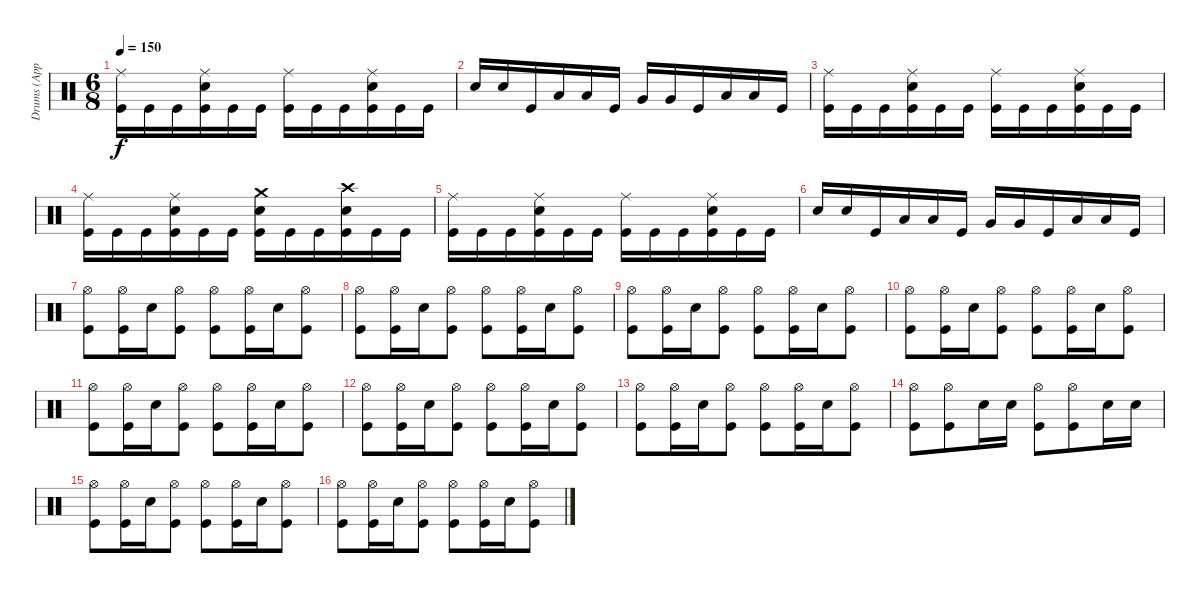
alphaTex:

\track ("Drums (Appelhans/Durst)" "Drums (App") {instrument percussion}
\staff {score}
\articulation defaults
\ts (6 8)
\tempo 150
\clef neutral
\ks c
("Kick (hit)" "Ride (middle)").16{dy f} "Kick (hit)".16 "Kick (hit)".16 ("Kick (hit)" "Ride (middle)" "Snare (hit) 2").16 "Kick (hit)".16 "Kick (hit)".16 ("Kick (hit)" "Ride (middle)").16 "Kick (hit)".16 "Kick (hit)".16 ("Kick (hit)" "Ride (middle)" "Snare (hit) 2").16 "Kick (hit)".16 "Kick (hit)".16 |
"Snare (hit) 2".16 "Snare (hit) 2".16 "Kick (hit)".16 "Low Tom (hit)".16 "Low Tom (hit)".16 "Kick (hit)".16 "Very Low Tom (hit)".16 "Very Low Tom (hit)".16 "Kick (hit)".16 "Low Floor Tom (hit)".16 "Low Floor Tom (hit)".16 "Kick (hit)".16 |
("Kick (hit)" "Ride (middle)").16 "Kick (hit)".16 "Kick (hit)".16 ("Kick (hit)" "Ride (middle)" "Snare (hit) 2").16 "Kick (hit)".16 "Kick (hit)".16 ("Kick (hit)" "Ride (middle)").16 "Kick (hit)".16 "Kick (hit)".16 ("Kick (hit)" "Ride (middle)" "Snare (hit) 2").16 "Kick (hit)".16 "Kick (hit)".16 |
("Kick (hit)" "Ride (middle)").16 "Kick (hit)".16 "Kick (hit)".16 ("Kick (hit)" "Ride (middle)" "Snare (hit) 2").16 "Kick (hit)".16 "Kick (hit)".16 ("Kick (hit)" "Snare (hit) 2" "Crash medium (hit)").16 "Kick (hit)".16 "Kick (hit)".16 ("Kick (hit)" "Snare (hit) 2" "Crash high (hit)").16 "Kick (hit)".16 "Kick (hit)".16 |
("Kick (hit)" "Ride (middle)").16 "Kick (hit)".16 "Kick (hit)".16 ("Kick (hit)" "Ride (middle)" "Snare (hit) 2").16 "Kick (hit)".16 "Kick (hit)".16 ("Kick (hit)" "Ride (middle)").16 "Kick (hit)".16 "Kick (hit)".16 ("Kick (hit)" "Ride (middle)" "Snare (hit) 2").16 "Kick (hit)".16 "Kick (hit)".16 |
"Snare (hit) 2".16 "Snare (hit) 2".16 "Kick (hit)".16 "Low Tom (hit)".16 "Low Tom (hit)".16 "Kick (hit)".16 "Very Low Tom (hit)".16 "Very Low Tom (hit)".16 "Kick (hit)".16 "Low Floor Tom (hit)".16 "Low Floor Tom (hit)".16 "Kick (hit)".16 |
("Kick (hit)" "Hi-Hat (open)").8 ("Kick (hit)" "Hi-Hat (open)").16 "Snare (hit) 2".16 ("Kick (hit)" "Hi-Hat (open)").8 ("Kick (hit)" "Hi-Hat (open)").8 ("Kick (hit)" "Hi-Hat (open)").16 "Snare (hit) 2".16 ("Kick (hit)" "Hi-Hat (open)").8 |
("Kick (hit)" "Hi-Hat (open)").8 ("Kick (hit)" "Hi-Hat (open)").16 "Snare (hit) 2".16 ("Kick (hit)" "Hi-Hat (open)").8 ("Kick (hit)" "Hi-Hat (open)").8 ("Kick (hit)" "Hi-Hat (open)").16 "Snare (hit) 2".16 ("Kick (hit)" "Hi-Hat (open)").8 |
("Kick (hit)" "Hi-Hat (open)").8 ("Kick (hit)" "Hi-Hat (open)").16 "Snare (hit) 2".16 ("Kick (hit)" "Hi-Hat (open)").8 ("Kick (hit)" "Hi-Hat (open)").8 ("Kick (hit)" "Hi-Hat (open)").16 "Snare (hit) 2".16 ("Kick (hit)" "Hi-Hat (open)").8 |
("Kick (hit)" "Hi-Hat (open)").8 ("Kick (hit)" "Hi-Hat (open)").16 "Snare (hit) 2".16 ("Kick (hit)" "Hi-Hat (open)").8 ("Kick (hit)" "Hi-Hat (open)").8 ("Kick (hit)" "Hi-Hat (open)").16 "Snare (hit) 2".16 ("Kick (hit)" "Hi-Hat (open)").8 |
("Kick (hit)" "Hi-Hat (open)").8 ("Kick (hit)" "Hi-Hat (open)").16 "Snare (hit) 2".16 ("Kick (hit)" "Hi-Hat (open)").8 ("Kick (hit)" "Hi-Hat (open)").8 ("Kick (hit)" "Hi-Hat (open)").16 "Snare (hit) 2".16 ("Kick (hit)" "Hi-Hat (open)").8 |
("Kick (hit)" "Hi-Hat (open)").8 ("Kick (hit)" "Hi-Hat (open)").16 "Snare (hit) 2".16 ("Kick (hit)" "Hi-Hat (open)").8 ("Kick (hit)" "Hi-Hat (open)").8 ("Kick (hit)" "Hi-Hat (open)").16 "Snare (hit) 2".16 ("Kick (hit)" "Hi-Hat (open)").8 |
("Kick (hit)" "Hi-Hat (open)").8 ("Kick (hit)" "Hi-Hat (open)").16 "Snare (hit) 2".16 ("Kick (hit)" "Hi-Hat (open)").8 ("Kick (hit)" "Hi-Hat (open)").8 ("Kick (hit)" "Hi-Hat (open)").16 "Snare (hit) 2".16 ("Kick (hit)" "Hi-Hat (open)").8 |
("Kick (hit)" "Hi-Hat (open)").8 ("Kick (hit)" "Hi-Hat (open)").8 "Snare (hit) 2".16 "Snare (hit) 2".16 ("Kick (hit)" "Hi-Hat (open)").8 ("Kick (hit)" "Hi-Hat (open)").8 "Snare (hit) 2".16 "Snare (hit) 2".16 |
("Kick (hit)" "Hi-Hat (open)").8 ("Kick (hit)" "Hi-Hat (open)").16 "Snare (hit) 2".16 ("Kick (hit)" "Hi-Hat (open)").8 ("Kick (hit)" "Hi-Hat (open)").8 ("Kick (hit)" "Hi-Hat (open)").16 "Snare (hit) 2".16 ("Kick (hit)" "Hi-Hat (open)").8 |
("Kick (hit)" "Hi-Hat (open)").8 ("Kick (hit)" "Hi-Hat (open)").16 "Snare (hit) 2".16 ("Kick (hit)" "Hi-Hat (open)").8 ("Kick (hit)" "Hi-Hat (open)").8 ("Kick (hit)" "Hi-Hat (open)").16 "Snare (hit) 2".16 ("Kick (hit)" "Hi-Hat (open)").8
